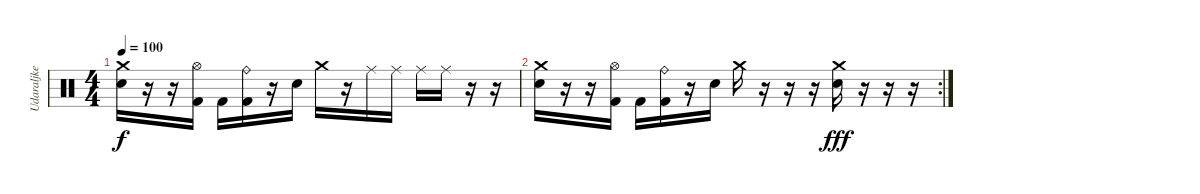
\track ("Udaraljke" "Udaraljke") {instrument percussion}
\staff {score}
\articulation defaults
\ts (4 4)
\tempo 100
\clef neutral
\ks c
("Crash medium (hit)" "Snare (hit) 2").16{dy f} r.16 r.16 ("Hi-Hat (open)" "Kick (hit) 2").16 "Kick (hit) 2".16 ("Ride (bell)" "Kick (hit) 2").16 r.16 "Snare (hit) 2".16 "Crash medium (hit)".16 r.16 "Ride (middle)".16 "Ride (middle)".16 "Ride (middle)".16 "Ride (middle)".16 r.16 r.16 |
\rc 2
("Crash medium (hit)" "Snare (hit) 2").16 r.16 r.16 ("Hi-Hat (open)" "Kick (hit) 2").16 "Kick (hit) 2".16 ("Ride (bell)" "Kick (hit) 2").16 r.16 "Snare (hit) 2".16 "Crash medium (hit)".16 r.16 r.16 r.16 ("Crash medium (hit)" "Snare (hit) 2").16{dy fff} r.16 r.16 r.16
